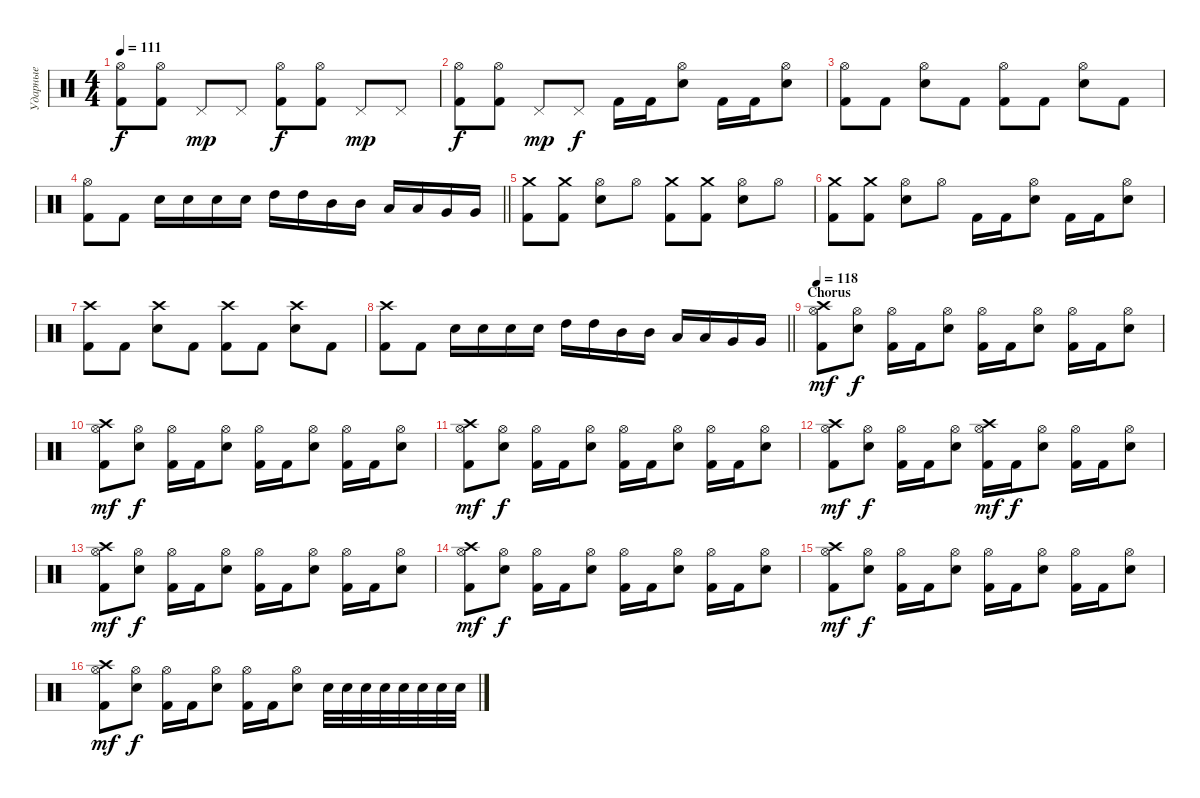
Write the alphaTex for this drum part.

\track ("Ударные" "Ударные") {instrument percussion}
\staff {score}
\articulation defaults
\ts (4 4)
\tempo 111
\clef neutral
\ks c
("Hi-Hat (open)" "Kick (hit) 2").8{dy f} ("Hi-Hat (open)" "Kick (hit) 2").8 "Pedal Hi-Hat (hit)".8{dy mp} "Pedal Hi-Hat (hit)".8 ("Hi-Hat (open)" "Kick (hit) 2").8{dy f} ("Hi-Hat (open)" "Kick (hit) 2").8 "Pedal Hi-Hat (hit)".8{dy mp} "Pedal Hi-Hat (hit)".8 |
("Hi-Hat (open)" "Kick (hit) 2").8{dy f} ("Hi-Hat (open)" "Kick (hit) 2").8 "Pedal Hi-Hat (hit)".8{dy mp} "Pedal Hi-Hat (hit)".8{dy f} "Kick (hit) 2".16 "Kick (hit) 2".16 ("Hi-Hat (open)" "Electric Snare (hit)").8 "Kick (hit) 2".16 "Kick (hit) 2".16 ("Hi-Hat (open)" "Electric Snare (hit)").8 |
("Hi-Hat (open)" "Kick (hit) 2").8 "Kick (hit) 2".8 ("Hi-Hat (open)" "Electric Snare (hit)").8 "Kick (hit) 2".8 ("Hi-Hat (open)" "Kick (hit) 2").8 "Kick (hit) 2".8 ("Hi-Hat (open)" "Electric Snare (hit)").8 "Kick (hit) 2".8 |
\barLineRight lightlight
("Hi-Hat (open)" "Kick (hit) 2").8 "Kick (hit) 2".8 "Electric Snare (hit)".16 "Electric Snare (hit)".16 "Electric Snare (hit)".16 "Electric Snare (hit)".16 "High Tom (hit)".16 "High Tom (hit)".16 "Mid Tom (hit)".16 "Mid Tom (hit)".16 "Low Tom (hit)".16 "Low Tom (hit)".16 "Very Low Tom (hit)".16 "Very Low Tom (hit)".16 |
("Crash medium (hit)" "Kick (hit) 2").8 ("Crash medium (hit)" "Kick (hit) 2").8 ("Hi-Hat (open)" "Electric Snare (hit)").8 "Hi-Hat (open)".8 ("Crash medium (hit)" "Kick (hit) 2").8 ("Crash medium (hit)" "Kick (hit) 2").8 ("Hi-Hat (open)" "Electric Snare (hit)").8 "Hi-Hat (open)".8 |
("Crash medium (hit)" "Kick (hit) 2").8 ("Crash medium (hit)" "Kick (hit) 2").8 ("Hi-Hat (open)" "Electric Snare (hit)").8 "Hi-Hat (open)".8 "Kick (hit) 2".16 "Kick (hit) 2".16 ("Hi-Hat (open)" "Electric Snare (hit)").8 "Kick (hit) 2".16 "Kick (hit) 2".16 ("Hi-Hat (open)" "Electric Snare (hit)").8 |
("Crash high (hit)" "Kick (hit) 2").8 "Kick (hit) 2".8 ("Crash high (hit)" "Electric Snare (hit)").8 "Kick (hit) 2".8 ("Crash high (hit)" "Kick (hit) 2").8 "Kick (hit) 2".8 ("Crash high (hit)" "Electric Snare (hit)").8 "Kick (hit) 2".8 |
\barLineRight lightlight
("Crash high (hit)" "Kick (hit) 2").8 "Kick (hit) 2".8 "Electric Snare (hit)".16 "Electric Snare (hit)".16 "Electric Snare (hit)".16 "Electric Snare (hit)".16 "High Tom (hit)".16 "High Tom (hit)".16 "Mid Tom (hit)".16 "Mid Tom (hit)".16 "Low Tom (hit)".16 "Low Tom (hit)".16 "Very Low Tom (hit)".16 "Very Low Tom (hit)".16 |
\section ("" "Chorus")
\tempo 118
("Hi-Hat (open)" "Crash high (hit)" "Kick (hit) 2").8{dy mf} ("Hi-Hat (open)" "Electric Snare (hit)").8{dy f} ("Hi-Hat (open)" "Kick (hit) 2").16 "Kick (hit) 2".16 ("Hi-Hat (open)" "Electric Snare (hit)").8 ("Hi-Hat (open)" "Kick (hit) 2").16 "Kick (hit) 2".16 ("Hi-Hat (open)" "Electric Snare (hit)").8 ("Hi-Hat (open)" "Kick (hit) 2").16 "Kick (hit) 2".16 ("Hi-Hat (open)" "Electric Snare (hit)").8 |
("Hi-Hat (open)" "Crash high (hit)" "Kick (hit) 2").8{dy mf} ("Hi-Hat (open)" "Electric Snare (hit)").8{dy f} ("Hi-Hat (open)" "Kick (hit) 2").16 "Kick (hit) 2".16 ("Hi-Hat (open)" "Electric Snare (hit)").8 ("Hi-Hat (open)" "Kick (hit) 2").16 "Kick (hit) 2".16 ("Hi-Hat (open)" "Electric Snare (hit)").8 ("Hi-Hat (open)" "Kick (hit) 2").16 "Kick (hit) 2".16 ("Hi-Hat (open)" "Electric Snare (hit)").8 |
("Hi-Hat (open)" "Crash high (hit)" "Kick (hit) 2").8{dy mf} ("Hi-Hat (open)" "Electric Snare (hit)").8{dy f} ("Hi-Hat (open)" "Kick (hit) 2").16 "Kick (hit) 2".16 ("Hi-Hat (open)" "Electric Snare (hit)").8 ("Hi-Hat (open)" "Kick (hit) 2").16 "Kick (hit) 2".16 ("Hi-Hat (open)" "Electric Snare (hit)").8 ("Hi-Hat (open)" "Kick (hit) 2").16 "Kick (hit) 2".16 ("Hi-Hat (open)" "Electric Snare (hit)").8 |
("Hi-Hat (open)" "Crash high (hit)" "Kick (hit) 2").8{dy mf} ("Hi-Hat (open)" "Electric Snare (hit)").8{dy f} ("Hi-Hat (open)" "Kick (hit) 2").16 "Kick (hit) 2".16 ("Hi-Hat (open)" "Electric Snare (hit)").8 ("Hi-Hat (open)" "Crash high (hit)" "Kick (hit) 2").16{dy mf} "Kick (hit) 2".16{dy f} ("Hi-Hat (open)" "Electric Snare (hit)").8 ("Hi-Hat (open)" "Kick (hit) 2").16 "Kick (hit) 2".16 ("Hi-Hat (open)" "Electric Snare (hit)").8 |
("Hi-Hat (open)" "Crash high (hit)" "Kick (hit) 2").8{dy mf} ("Hi-Hat (open)" "Electric Snare (hit)").8{dy f} ("Hi-Hat (open)" "Kick (hit) 2").16 "Kick (hit) 2".16 ("Hi-Hat (open)" "Electric Snare (hit)").8 ("Hi-Hat (open)" "Kick (hit) 2").16 "Kick (hit) 2".16 ("Hi-Hat (open)" "Electric Snare (hit)").8 ("Hi-Hat (open)" "Kick (hit) 2").16 "Kick (hit) 2".16 ("Hi-Hat (open)" "Electric Snare (hit)").8 |
("Hi-Hat (open)" "Crash high (hit)" "Kick (hit) 2").8{dy mf} ("Hi-Hat (open)" "Electric Snare (hit)").8{dy f} ("Hi-Hat (open)" "Kick (hit) 2").16 "Kick (hit) 2".16 ("Hi-Hat (open)" "Electric Snare (hit)").8 ("Hi-Hat (open)" "Kick (hit) 2").16 "Kick (hit) 2".16 ("Hi-Hat (open)" "Electric Snare (hit)").8 ("Hi-Hat (open)" "Kick (hit) 2").16 "Kick (hit) 2".16 ("Hi-Hat (open)" "Electric Snare (hit)").8 |
("Hi-Hat (open)" "Crash high (hit)" "Kick (hit) 2").8{dy mf} ("Hi-Hat (open)" "Electric Snare (hit)").8{dy f} ("Hi-Hat (open)" "Kick (hit) 2").16 "Kick (hit) 2".16 ("Hi-Hat (open)" "Electric Snare (hit)").8 ("Hi-Hat (open)" "Kick (hit) 2").16 "Kick (hit) 2".16 ("Hi-Hat (open)" "Electric Snare (hit)").8 ("Hi-Hat (open)" "Kick (hit) 2").16 "Kick (hit) 2".16 ("Hi-Hat (open)" "Electric Snare (hit)").8 |
("Hi-Hat (open)" "Crash high (hit)" "Kick (hit) 2").8{dy mf} ("Hi-Hat (open)" "Electric Snare (hit)").8{dy f} ("Hi-Hat (open)" "Kick (hit) 2").16 "Kick (hit) 2".16 ("Hi-Hat (open)" "Electric Snare (hit)").8 ("Hi-Hat (open)" "Kick (hit) 2").16 "Kick (hit) 2".16 ("Hi-Hat (open)" "Electric Snare (hit)").8 "Electric Snare (hit)".32 "Electric Snare (hit)".32 "Electric Snare (hit)".32 "Electric Snare (hit)".32 "Electric Snare (hit)".32 "Electric Snare (hit)".32 "Electric Snare (hit)".32 "Electric Snare (hit)".32
